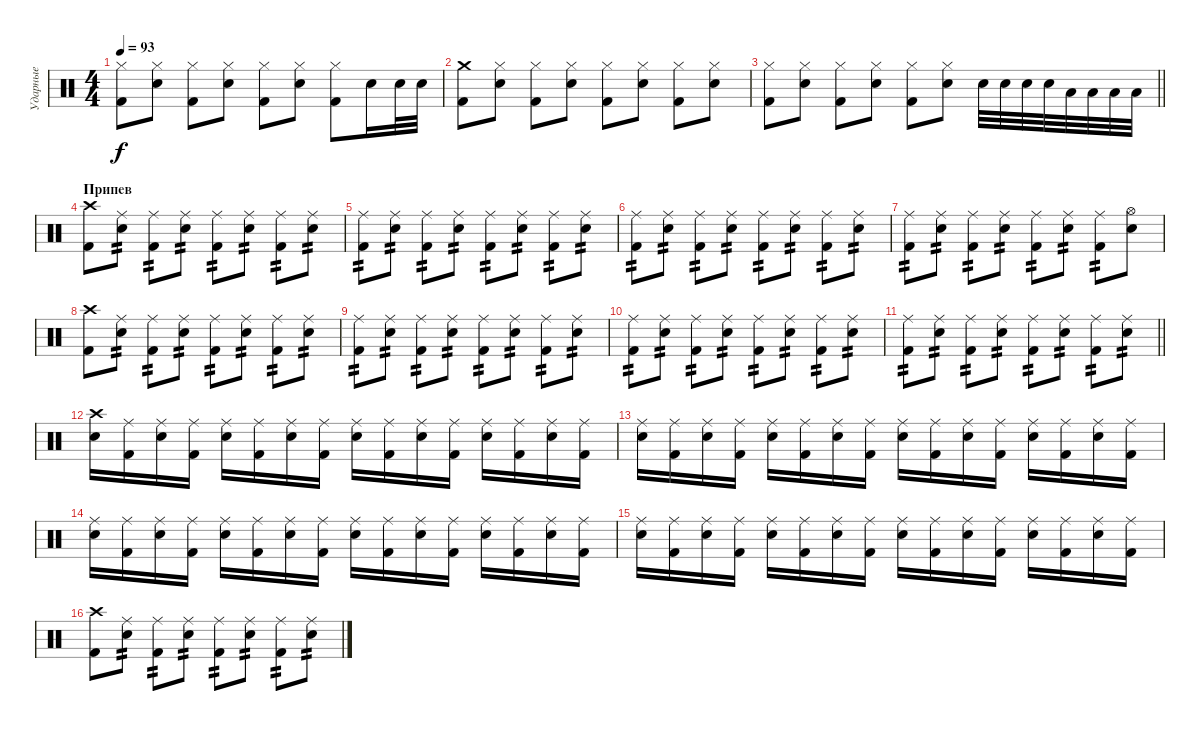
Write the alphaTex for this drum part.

\track ("Ударные" "Ударные") {instrument percussion}
\staff {score}
\articulation defaults
\ts (4 4)
\tempo 93
\clef neutral
\ks c
("Kick (hit) 2" "Hi-Hat (closed)").8{dy f} ("Electric Snare (hit)" "Hi-Hat (closed)").8 ("Kick (hit) 2" "Hi-Hat (closed)").8 ("Electric Snare (hit)" "Hi-Hat (closed)").8 ("Kick (hit) 2" "Hi-Hat (closed)").8 ("Electric Snare (hit)" "Hi-Hat (closed)").8 ("Kick (hit) 2" "Hi-Hat (closed)").8 "Electric Snare (hit)".16 "Electric Snare (hit)".32 "Electric Snare (hit)".32 |
("Kick (hit) 2" "Crash medium (hit)").8 ("Electric Snare (hit)" "Hi-Hat (closed)").8 ("Kick (hit) 2" "Hi-Hat (closed)").8 ("Electric Snare (hit)" "Hi-Hat (closed)").8 ("Kick (hit) 2" "Hi-Hat (closed)").8 ("Electric Snare (hit)" "Hi-Hat (closed)").8 ("Kick (hit) 2" "Hi-Hat (closed)").8 ("Electric Snare (hit)" "Hi-Hat (closed)").8 |
\barLineRight lightlight
("Kick (hit) 2" "Hi-Hat (closed)").8 ("Electric Snare (hit)" "Hi-Hat (closed)").8 ("Kick (hit) 2" "Hi-Hat (closed)").8 ("Electric Snare (hit)" "Hi-Hat (closed)").8 ("Kick (hit) 2" "Hi-Hat (closed)").8 ("Electric Snare (hit)" "Hi-Hat (closed)").8 "Electric Snare (hit)".32 "Electric Snare (hit)".32 "Electric Snare (hit)".32 "Electric Snare (hit)".32 "Low Tom (hit)".32 "Low Tom (hit)".32 "Low Tom (hit)".32 "Low Tom (hit)".32 |
\section ("" "Припев")
("Kick (hit) 2" "Crash high (hit)").8 ("Electric Snare (hit)" "Ride (middle)").8{tp 2} ("Kick (hit) 2" "Ride (middle)").8{tp 2} ("Electric Snare (hit)" "Ride (middle)").8{tp 2} ("Kick (hit) 2" "Ride (middle)").8{tp 2} ("Electric Snare (hit)" "Ride (middle)").8{tp 2} ("Kick (hit) 2" "Ride (middle)").8{tp 2} ("Electric Snare (hit)" "Ride (middle)").8{tp 2} |
("Kick (hit) 2" "Ride (middle)").8{tp 2} ("Electric Snare (hit)" "Ride (middle)").8{tp 2} ("Kick (hit) 2" "Ride (middle)").8{tp 2} ("Electric Snare (hit)" "Ride (middle)").8{tp 2} ("Kick (hit) 2" "Ride (middle)").8{tp 2} ("Electric Snare (hit)" "Ride (middle)").8{tp 2} ("Kick (hit) 2" "Ride (middle)").8{tp 2} ("Electric Snare (hit)" "Ride (middle)").8{tp 2} |
("Kick (hit) 2" "Ride (middle)").8{tp 2} ("Electric Snare (hit)" "Ride (middle)").8{tp 2} ("Kick (hit) 2" "Ride (middle)").8{tp 2} ("Electric Snare (hit)" "Ride (middle)").8{tp 2} ("Kick (hit) 2" "Ride (middle)").8{tp 2} ("Electric Snare (hit)" "Ride (middle)").8{tp 2} ("Kick (hit) 2" "Ride (middle)").8{tp 2} ("Electric Snare (hit)" "Ride (middle)").8{tp 2} |
("Kick (hit) 2" "Ride (middle)").8{tp 2} ("Electric Snare (hit)" "Ride (middle)").8{tp 2} ("Kick (hit) 2" "Ride (middle)").8{tp 2} ("Electric Snare (hit)" "Ride (middle)").8{tp 2} ("Kick (hit) 2" "Ride (middle)").8{tp 2} ("Electric Snare (hit)" "Ride (middle)").8{tp 2} ("Kick (hit) 2" "Ride (middle)").8{tp 2} ("Electric Snare (hit)" "Hi-Hat (open)").8 |
("Kick (hit) 2" "Crash high (hit)").8 ("Electric Snare (hit)" "Ride (middle)").8{tp 2} ("Kick (hit) 2" "Ride (middle)").8{tp 2} ("Electric Snare (hit)" "Ride (middle)").8{tp 2} ("Kick (hit) 2" "Ride (middle)").8{tp 2} ("Electric Snare (hit)" "Ride (middle)").8{tp 2} ("Kick (hit) 2" "Ride (middle)").8{tp 2} ("Electric Snare (hit)" "Ride (middle)").8{tp 2} |
("Kick (hit) 2" "Ride (middle)").8{tp 2} ("Electric Snare (hit)" "Ride (middle)").8{tp 2} ("Kick (hit) 2" "Ride (middle)").8{tp 2} ("Electric Snare (hit)" "Ride (middle)").8{tp 2} ("Kick (hit) 2" "Ride (middle)").8{tp 2} ("Electric Snare (hit)" "Ride (middle)").8{tp 2} ("Kick (hit) 2" "Ride (middle)").8{tp 2} ("Electric Snare (hit)" "Ride (middle)").8{tp 2} |
("Kick (hit) 2" "Ride (middle)").8{tp 2} ("Electric Snare (hit)" "Ride (middle)").8{tp 2} ("Kick (hit) 2" "Ride (middle)").8{tp 2} ("Electric Snare (hit)" "Ride (middle)").8{tp 2} ("Kick (hit) 2" "Ride (middle)").8{tp 2} ("Electric Snare (hit)" "Ride (middle)").8{tp 2} ("Kick (hit) 2" "Ride (middle)").8{tp 2} ("Electric Snare (hit)" "Ride (middle)").8{tp 2} |
\barLineRight lightlight
("Kick (hit) 2" "Ride (middle)").8{tp 2} ("Electric Snare (hit)" "Ride (middle)").8{tp 2} ("Kick (hit) 2" "Ride (middle)").8{tp 2} ("Electric Snare (hit)" "Ride (middle)").8{tp 2} ("Kick (hit) 2" "Ride (middle)").8{tp 2} ("Electric Snare (hit)" "Ride (middle)").8{tp 2} ("Kick (hit) 2" "Ride (middle)").8{tp 2} ("Electric Snare (hit)" "Ride (middle)").8{tp 2} |
("Crash high (hit)" "Electric Snare (hit)").16 ("Ride (middle)" "Kick (hit) 2").16 ("Ride (middle)" "Electric Snare (hit)").16 ("Ride (middle)" "Kick (hit) 2").16 ("Ride (middle)" "Electric Snare (hit)").16 ("Ride (middle)" "Kick (hit) 2").16 ("Ride (middle)" "Electric Snare (hit)").16 ("Ride (middle)" "Kick (hit) 2").16 ("Ride (middle)" "Electric Snare (hit)").16 ("Ride (middle)" "Kick (hit) 2").16 ("Ride (middle)" "Electric Snare (hit)").16 ("Ride (middle)" "Kick (hit) 2").16 ("Ride (middle)" "Electric Snare (hit)").16 ("Ride (middle)" "Kick (hit) 2").16 ("Ride (middle)" "Electric Snare (hit)").16 ("Ride (middle)" "Kick (hit) 2").16 |
("Ride (middle)" "Electric Snare (hit)").16 ("Ride (middle)" "Kick (hit) 2").16 ("Ride (middle)" "Electric Snare (hit)").16 ("Ride (middle)" "Kick (hit) 2").16 ("Ride (middle)" "Electric Snare (hit)").16 ("Ride (middle)" "Kick (hit) 2").16 ("Ride (middle)" "Electric Snare (hit)").16 ("Ride (middle)" "Kick (hit) 2").16 ("Ride (middle)" "Electric Snare (hit)").16 ("Ride (middle)" "Kick (hit) 2").16 ("Ride (middle)" "Electric Snare (hit)").16 ("Ride (middle)" "Kick (hit) 2").16 ("Ride (middle)" "Electric Snare (hit)").16 ("Ride (middle)" "Kick (hit) 2").16 ("Ride (middle)" "Electric Snare (hit)").16 ("Ride (middle)" "Kick (hit) 2").16 |
("Ride (middle)" "Electric Snare (hit)").16 ("Ride (middle)" "Kick (hit) 2").16 ("Ride (middle)" "Electric Snare (hit)").16 ("Ride (middle)" "Kick (hit) 2").16 ("Ride (middle)" "Electric Snare (hit)").16 ("Ride (middle)" "Kick (hit) 2").16 ("Ride (middle)" "Electric Snare (hit)").16 ("Ride (middle)" "Kick (hit) 2").16 ("Ride (middle)" "Electric Snare (hit)").16 ("Ride (middle)" "Kick (hit) 2").16 ("Ride (middle)" "Electric Snare (hit)").16 ("Ride (middle)" "Kick (hit) 2").16 ("Ride (middle)" "Electric Snare (hit)").16 ("Ride (middle)" "Kick (hit) 2").16 ("Ride (middle)" "Electric Snare (hit)").16 ("Ride (middle)" "Kick (hit) 2").16 |
("Ride (middle)" "Electric Snare (hit)").16 ("Ride (middle)" "Kick (hit) 2").16 ("Ride (middle)" "Electric Snare (hit)").16 ("Ride (middle)" "Kick (hit) 2").16 ("Ride (middle)" "Electric Snare (hit)").16 ("Ride (middle)" "Kick (hit) 2").16 ("Ride (middle)" "Electric Snare (hit)").16 ("Ride (middle)" "Kick (hit) 2").16 ("Ride (middle)" "Electric Snare (hit)").16 ("Ride (middle)" "Kick (hit) 2").16 ("Ride (middle)" "Electric Snare (hit)").16 ("Ride (middle)" "Kick (hit) 2").16 ("Ride (middle)" "Electric Snare (hit)").16 ("Ride (middle)" "Kick (hit) 2").16 ("Ride (middle)" "Electric Snare (hit)").16 ("Ride (middle)" "Kick (hit) 2").16 |
("Kick (hit) 2" "Crash high (hit)").8 ("Electric Snare (hit)" "Ride (middle)").8{tp 2} ("Kick (hit) 2" "Ride (middle)").8{tp 2} ("Electric Snare (hit)" "Ride (middle)").8{tp 2} ("Kick (hit) 2" "Ride (middle)").8{tp 2} ("Electric Snare (hit)" "Ride (middle)").8{tp 2} ("Kick (hit) 2" "Ride (middle)").8{tp 2} ("Electric Snare (hit)" "Ride (middle)").8{tp 2}
